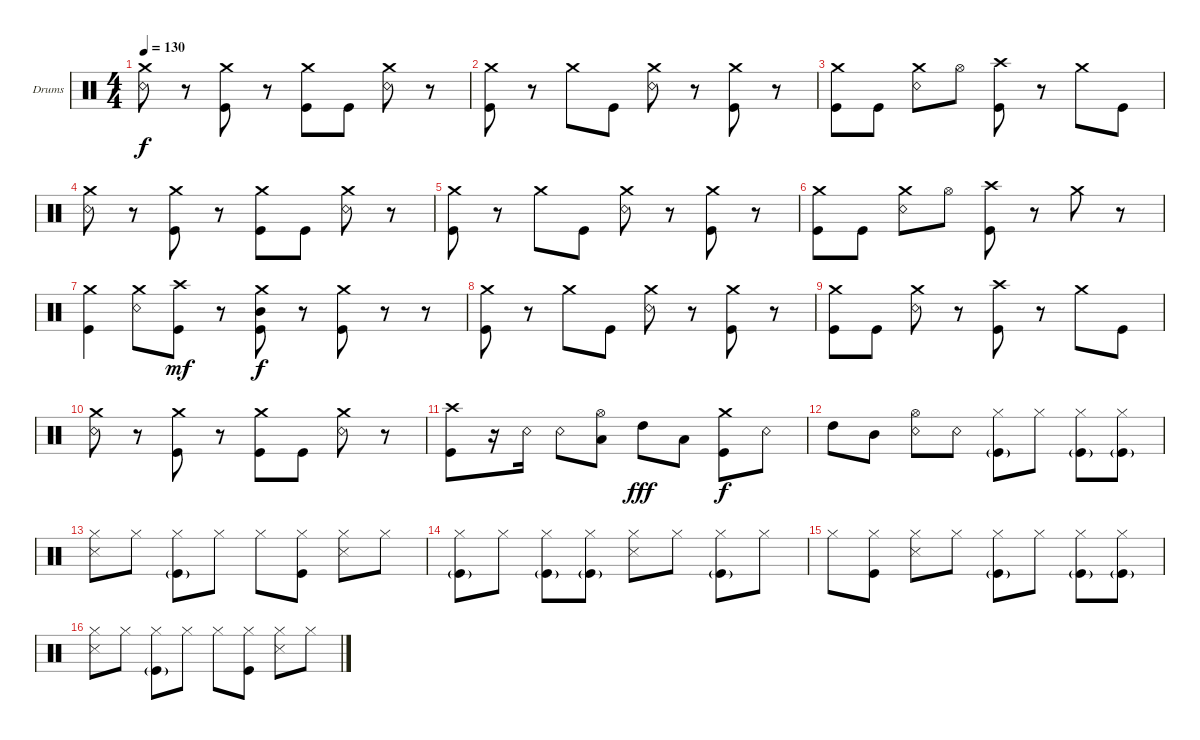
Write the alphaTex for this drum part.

\bracketExtendMode groupsimilarinstruments
\firstSystemTrackNameOrientation horizontal
\otherSystemsTrackNameOrientation horizontal
\track ("Drumkit" "Drums") {instrument percussion}
\staff {score}
\articulation defaults
\ts (4 4)
\tempo 130
\clef neutral
\scale
0.333333
\ks c
("Snare (rim shot)" "Crash medium (hit)").8{dy f} r.8 ("Kick (hit)" "Crash medium (hit)").8 r.8 ("Kick (hit)" "Crash medium (hit)").8 "Kick (hit)".8 ("Snare (rim shot)" "Crash medium (hit)").8 r.8 |
\scale
0.333333 ("Kick (hit)" "Crash medium (hit)").8 r.8 "Crash medium (hit)".8 "Kick (hit)".8 ("Snare (rim shot)" "Crash medium (hit)").8 r.8 ("Kick (hit)" "Crash medium (hit)").8 r.8 |
\scale
0.333333 ("Kick (hit)" "Crash medium (hit)").8 "Kick (hit)".8 ("Snare (rim shot)" "Crash medium (hit)").8 "Hi-Hat (open)".8 ("Kick (hit)" "Crash high (hit)").8 r.8 "Crash medium (hit)".8 "Kick (hit)".8 |
\scale
0.333333 ("Snare (rim shot)" "Crash medium (hit)").8 r.8 ("Kick (hit)" "Crash medium (hit)").8 r.8 ("Kick (hit)" "Crash medium (hit)").8 "Kick (hit)".8 ("Snare (rim shot)" "Crash medium (hit)").8 r.8 |
\scale
0.333333 ("Kick (hit)" "Crash medium (hit)").8 r.8 "Crash medium (hit)".8 "Kick (hit)".8 ("Snare (rim shot)" "Crash medium (hit)").8 r.8 ("Kick (hit)" "Crash medium (hit)").8 r.8 |
\scale
0.333333 ("Kick (hit)" "Crash medium (hit)").8 "Kick (hit)".8 ("Snare (rim shot)" "Crash medium (hit)").8 "Hi-Hat (open)".8 ("Kick (hit)" "Crash high (hit)").8 r.8 "Crash medium (hit)".8 r.8 |
\scale
0.333333 ("Kick (hit)" "Crash medium (hit)").4 ("Crash medium (hit)" "Snare (rim shot)").8 ("Kick (hit)" "Crash high (hit)").8{dy mf} r.8 ("Kick (hit)" "Crash medium (hit)" "Mid Tom (hit)").8{dy f} r.8 ("Kick (hit)" "Crash medium (hit)").8 r.8 r.8 |
\scale
0.333333 ("Kick (hit)" "Crash medium (hit)").8 r.8 "Crash medium (hit)".8 "Kick (hit)".8 ("Snare (rim shot)" "Crash medium (hit)").8 r.8 ("Kick (hit)" "Crash medium (hit)").8 r.8 |
\scale
0.333333 ("Kick (hit)" "Crash medium (hit)").8 "Kick (hit)".8 ("Snare (rim shot)" "Crash medium (hit)").8 r.8 ("Kick (hit)" "Crash high (hit)").8 r.8 "Crash medium (hit)".8 "Kick (hit)".8 |
\scale
0.333333 ("Snare (rim shot)" "Crash medium (hit)").8 r.8 ("Kick (hit)" "Crash medium (hit)").8 r.8 ("Kick (hit)" "Crash medium (hit)").8 "Kick (hit)".8 ("Snare (rim shot)" "Crash medium (hit)").8 r.8 |
("Kick (hit)" "Crash high (hit)").8 r.16 "Snare (rim shot)".16 "Snare (rim shot)".8 ("Low Tom (hit)" "Hi-Hat (open)").8 "High Tom (hit)".8{dy fff} "Low Tom (hit)".8 ("Kick (hit)" "Crash medium (hit)").8{dy f} "Snare (rim shot)".8 |
"High Tom (hit)".8 "Mid Tom (hit)".8 ("Snare (rim shot)" "Hi-Hat (open)").8 "Snare (rim shot)".8 ("Kick (hit)"{g} "Hi-Hat (closed)").8 "Hi-Hat (closed)".8 ("Hi-Hat (closed)" "Kick (hit)"{g}).8 ("Hi-Hat (closed)" "Kick (hit)"{g}).8 |
("Snare (side stick) 3" "Hi-Hat (closed)").8 "Hi-Hat (closed)".8 ("Hi-Hat (closed)" "Kick (hit)"{g}).8 "Hi-Hat (closed)".8 "Hi-Hat (closed)".8 ("Hi-Hat (closed)" "Kick (hit)").8 ("Hi-Hat (closed)" "Snare (side stick) 3").8 "Hi-Hat (closed)".8 |
("Kick (hit)"{g} "Hi-Hat (closed)").8 "Hi-Hat (closed)".8 ("Hi-Hat (closed)" "Kick (hit)"{g}).8 ("Hi-Hat (closed)" "Kick (hit)"{g}).8 ("Snare (side stick) 3" "Hi-Hat (closed)").8 "Hi-Hat (closed)".8 ("Hi-Hat (closed)" "Kick (hit)"{g}).8 "Hi-Hat (closed)".8 |
"Hi-Hat (closed)".8 ("Hi-Hat (closed)" "Kick (hit)").8 ("Hi-Hat (closed)" "Snare (side stick) 3").8 "Hi-Hat (closed)".8 ("Kick (hit)"{g} "Hi-Hat (closed)").8 "Hi-Hat (closed)".8 ("Hi-Hat (closed)" "Kick (hit)"{g}).8 ("Hi-Hat (closed)" "Kick (hit)"{g}).8 |
("Snare (side stick) 3" "Hi-Hat (closed)").8 "Hi-Hat (closed)".8 ("Hi-Hat (closed)" "Kick (hit)"{g}).8 "Hi-Hat (closed)".8 "Hi-Hat (closed)".8 ("Hi-Hat (closed)" "Kick (hit)").8 ("Hi-Hat (closed)" "Snare (side stick) 3").8 "Hi-Hat (closed)".8
